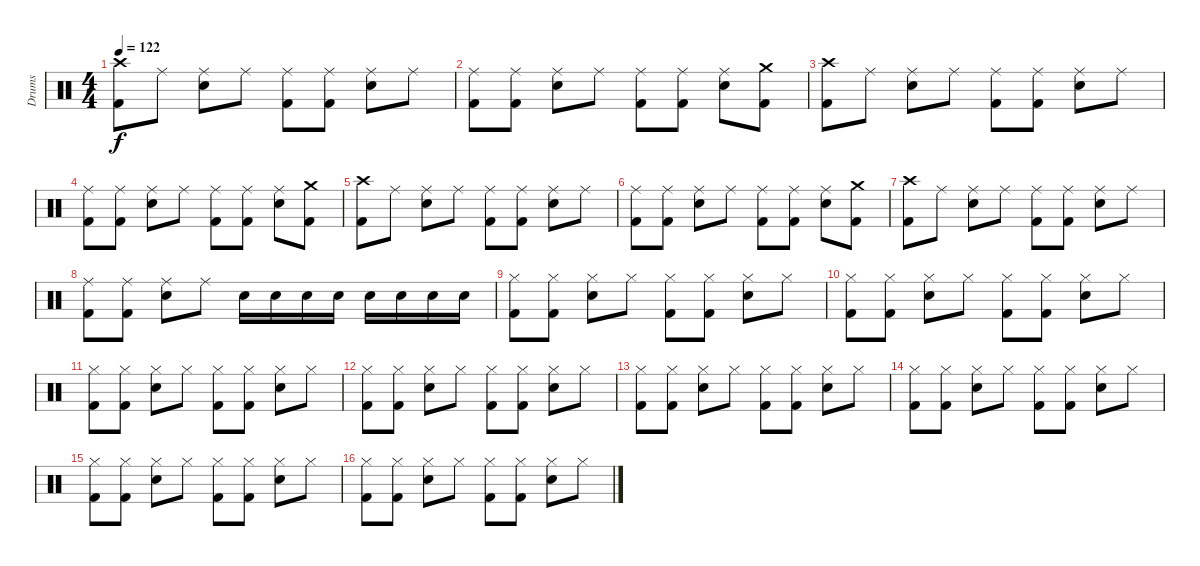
\track ("Drums" "Drums") {instrument percussion}
\staff {score}
\articulation defaults
\ts (4 4)
\tempo 122
\clef neutral
\ks c
("Crash high (hit)" "Kick (hit) 2").8{dy f} "Ride (middle)".8 ("Ride (middle)" "Snare (hit) 2").8 "Ride (middle)".8 ("Ride (middle)" "Kick (hit) 2").8 ("Ride (middle)" "Kick (hit) 2").8 ("Ride (middle)" "Snare (hit) 2").8 "Ride (middle)".8 |
("Ride (middle)" "Kick (hit) 2").8 ("Ride (middle)" "Kick (hit) 2").8 ("Ride (middle)" "Snare (hit) 2").8 "Ride (middle)".8 ("Ride (middle)" "Kick (hit) 2").8 ("Ride (middle)" "Kick (hit) 2").8 ("Ride (middle)" "Snare (hit) 2").8 ("Crash medium (hit)" "Kick (hit) 2").8 |
("Crash high (hit)" "Kick (hit) 2").8 "Ride (middle)".8 ("Ride (middle)" "Snare (hit) 2").8 "Ride (middle)".8 ("Ride (middle)" "Kick (hit) 2").8 ("Ride (middle)" "Kick (hit) 2").8 ("Ride (middle)" "Snare (hit) 2").8 "Ride (middle)".8 |
("Ride (middle)" "Kick (hit) 2").8 ("Ride (middle)" "Kick (hit) 2").8 ("Ride (middle)" "Snare (hit) 2").8 "Ride (middle)".8 ("Ride (middle)" "Kick (hit) 2").8 ("Ride (middle)" "Kick (hit) 2").8 ("Ride (middle)" "Snare (hit) 2").8 ("Crash medium (hit)" "Kick (hit) 2").8 |
("Crash high (hit)" "Kick (hit) 2").8 "Ride (middle)".8 ("Ride (middle)" "Snare (hit) 2").8 "Ride (middle)".8 ("Ride (middle)" "Kick (hit) 2").8 ("Ride (middle)" "Kick (hit) 2").8 ("Ride (middle)" "Snare (hit) 2").8 "Ride (middle)".8 |
("Ride (middle)" "Kick (hit) 2").8 ("Ride (middle)" "Kick (hit) 2").8 ("Ride (middle)" "Snare (hit) 2").8 "Ride (middle)".8 ("Ride (middle)" "Kick (hit) 2").8 ("Ride (middle)" "Kick (hit) 2").8 ("Ride (middle)" "Snare (hit) 2").8 ("Crash medium (hit)" "Kick (hit) 2").8 |
("Crash high (hit)" "Kick (hit) 2").8 "Ride (middle)".8 ("Ride (middle)" "Snare (hit) 2").8 "Ride (middle)".8 ("Ride (middle)" "Kick (hit) 2").8 ("Ride (middle)" "Kick (hit) 2").8 ("Ride (middle)" "Snare (hit) 2").8 "Ride (middle)".8 |
("Ride (middle)" "Kick (hit) 2").8 ("Ride (middle)" "Kick (hit) 2").8 ("Ride (middle)" "Snare (hit) 2").8 "Ride (middle)".8 "Snare (hit) 2".16 "Snare (hit) 2".16 "Snare (hit) 2".16 "Snare (hit) 2".16 "Snare (hit) 2".16 "Snare (hit) 2".16 "Snare (hit) 2".16 "Snare (hit) 2".16 |
("Hi-Hat (closed)" "Kick (hit) 2").8 ("Hi-Hat (closed)" "Kick (hit) 2").8 ("Hi-Hat (closed)" "Snare (hit) 2").8 "Hi-Hat (closed)".8 ("Hi-Hat (closed)" "Kick (hit) 2").8 ("Hi-Hat (closed)" "Kick (hit) 2").8 ("Hi-Hat (closed)" "Snare (hit) 2").8 "Hi-Hat (closed)".8 |
("Hi-Hat (closed)" "Kick (hit) 2").8 ("Hi-Hat (closed)" "Kick (hit) 2").8 ("Hi-Hat (closed)" "Snare (hit) 2").8 "Hi-Hat (closed)".8 ("Hi-Hat (closed)" "Kick (hit) 2").8 ("Hi-Hat (closed)" "Kick (hit) 2").8 ("Hi-Hat (closed)" "Snare (hit) 2").8 "Hi-Hat (closed)".8 |
("Hi-Hat (closed)" "Kick (hit) 2").8 ("Hi-Hat (closed)" "Kick (hit) 2").8 ("Hi-Hat (closed)" "Snare (hit) 2").8 "Hi-Hat (closed)".8 ("Hi-Hat (closed)" "Kick (hit) 2").8 ("Hi-Hat (closed)" "Kick (hit) 2").8 ("Hi-Hat (closed)" "Snare (hit) 2").8 "Hi-Hat (closed)".8 |
("Hi-Hat (closed)" "Kick (hit) 2").8 ("Hi-Hat (closed)" "Kick (hit) 2").8 ("Hi-Hat (closed)" "Snare (hit) 2").8 "Hi-Hat (closed)".8 ("Hi-Hat (closed)" "Kick (hit) 2").8 ("Hi-Hat (closed)" "Kick (hit) 2").8 ("Hi-Hat (closed)" "Snare (hit) 2").8 "Hi-Hat (closed)".8 |
("Hi-Hat (closed)" "Kick (hit) 2").8 ("Hi-Hat (closed)" "Kick (hit) 2").8 ("Hi-Hat (closed)" "Snare (hit) 2").8 "Hi-Hat (closed)".8 ("Hi-Hat (closed)" "Kick (hit) 2").8 ("Hi-Hat (closed)" "Kick (hit) 2").8 ("Hi-Hat (closed)" "Snare (hit) 2").8 "Hi-Hat (closed)".8 |
("Hi-Hat (closed)" "Kick (hit) 2").8 ("Hi-Hat (closed)" "Kick (hit) 2").8 ("Hi-Hat (closed)" "Snare (hit) 2").8 "Hi-Hat (closed)".8 ("Hi-Hat (closed)" "Kick (hit) 2").8 ("Hi-Hat (closed)" "Kick (hit) 2").8 ("Hi-Hat (closed)" "Snare (hit) 2").8 "Hi-Hat (closed)".8 |
("Hi-Hat (closed)" "Kick (hit) 2").8 ("Hi-Hat (closed)" "Kick (hit) 2").8 ("Hi-Hat (closed)" "Snare (hit) 2").8 "Hi-Hat (closed)".8 ("Hi-Hat (closed)" "Kick (hit) 2").8 ("Hi-Hat (closed)" "Kick (hit) 2").8 ("Hi-Hat (closed)" "Snare (hit) 2").8 "Hi-Hat (closed)".8 |
("Hi-Hat (closed)" "Kick (hit) 2").8 ("Hi-Hat (closed)" "Kick (hit) 2").8 ("Hi-Hat (closed)" "Snare (hit) 2").8 "Hi-Hat (closed)".8 ("Hi-Hat (closed)" "Kick (hit) 2").8 ("Hi-Hat (closed)" "Kick (hit) 2").8 ("Hi-Hat (closed)" "Snare (hit) 2").8 "Hi-Hat (closed)".8
